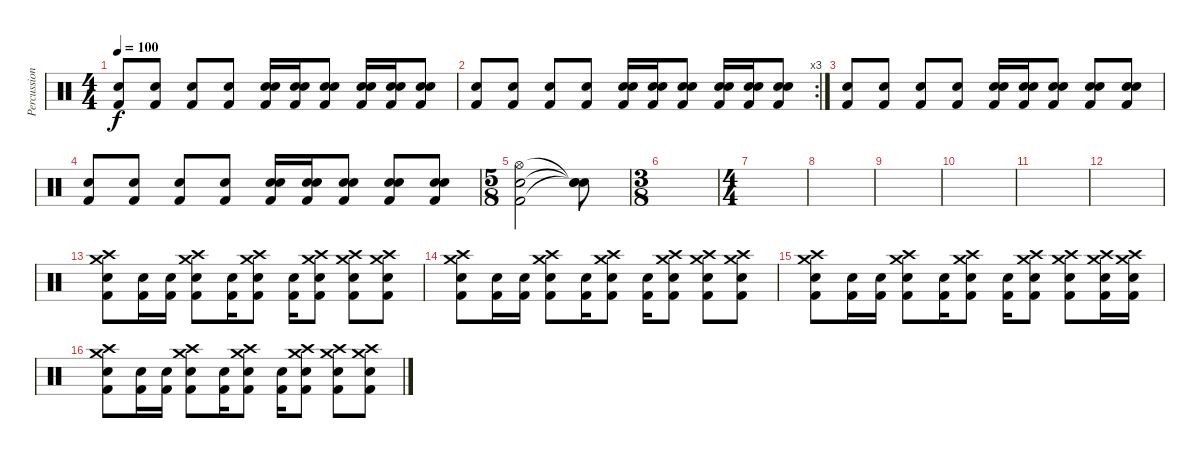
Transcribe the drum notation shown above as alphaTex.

\track ("Percussion" "Percussion") {instrument percussion}
\staff {score}
\articulation defaults
\ts (4 4)
\tempo 100
\clef neutral
\ks c
("Kick (hit) 2" "Snare (hit) 2").8{dy f} ("Kick (hit) 2" "Snare (hit) 2").8 ("Kick (hit) 2" "Snare (hit) 2").8 ("Kick (hit) 2" "Snare (hit) 2").8 ("Snare (hit) 2" "Electric Snare (hit)" "Kick (hit) 2").16 ("Snare (hit) 2" "Electric Snare (hit)" "Kick (hit) 2").16 ("Snare (hit) 2" "Electric Snare (hit)" "Kick (hit) 2").8 ("Snare (hit) 2" "Electric Snare (hit)" "Kick (hit) 2").16 ("Snare (hit) 2" "Electric Snare (hit)" "Kick (hit) 2").16 ("Snare (hit) 2" "Electric Snare (hit)" "Kick (hit) 2").8 |
\rc 3
("Kick (hit) 2" "Snare (hit) 2").8 ("Kick (hit) 2" "Snare (hit) 2").8 ("Kick (hit) 2" "Snare (hit) 2").8 ("Kick (hit) 2" "Snare (hit) 2").8 ("Snare (hit) 2" "Electric Snare (hit)" "Kick (hit) 2").16 ("Snare (hit) 2" "Electric Snare (hit)" "Kick (hit) 2").16 ("Snare (hit) 2" "Electric Snare (hit)" "Kick (hit) 2").8 ("Snare (hit) 2" "Electric Snare (hit)" "Kick (hit) 2").16 ("Snare (hit) 2" "Electric Snare (hit)" "Kick (hit) 2").16 ("Snare (hit) 2" "Electric Snare (hit)" "Kick (hit) 2").8 |
("Kick (hit) 2" "Snare (hit) 2").8 ("Kick (hit) 2" "Snare (hit) 2").8 ("Kick (hit) 2" "Snare (hit) 2").8 ("Kick (hit) 2" "Snare (hit) 2").8 ("Snare (hit) 2" "Electric Snare (hit)" "Kick (hit) 2").16 ("Snare (hit) 2" "Electric Snare (hit)" "Kick (hit) 2").16 ("Snare (hit) 2" "Electric Snare (hit)" "Kick (hit) 2").8 ("Snare (hit) 2" "Electric Snare (hit)" "Kick (hit) 2").8 ("Snare (hit) 2" "Electric Snare (hit)" "Kick (hit) 2").8 |
("Kick (hit) 2" "Snare (hit) 2").8 ("Kick (hit) 2" "Snare (hit) 2").8 ("Kick (hit) 2" "Snare (hit) 2").8 ("Kick (hit) 2" "Snare (hit) 2").8 ("Snare (hit) 2" "Electric Snare (hit)" "Kick (hit) 2").16 ("Snare (hit) 2" "Electric Snare (hit)" "Kick (hit) 2").16 ("Snare (hit) 2" "Electric Snare (hit)" "Kick (hit) 2").8 ("Snare (hit) 2" "Electric Snare (hit)" "Kick (hit) 2").8 ("Snare (hit) 2" "Electric Snare (hit)" "Kick (hit) 2").8 |
\ts (5 8)
("Snare (hit) 2" "Hi-Hat (open)" "Kick (hit) 2").2 ("Snare (hit)"{t} "Snare (hit)"{t} "Snare (hit)"{t}).8 |
\ts (3 8)
|
\ts (4 4)
|
|
|
|
|
|
("Crash high (hit)" "Kick (hit) 2" "Electric Snare (hit)" "Crash medium (hit)").8 ("Kick (hit) 2" "Electric Snare (hit)").16 ("Kick (hit) 2" "Electric Snare (hit)").16 ("Crash high (hit)" "Kick (hit) 2" "Electric Snare (hit)" "Crash medium (hit)").8 ("Kick (hit) 2" "Electric Snare (hit)").16 ("Crash high (hit)" "Kick (hit) 2" "Electric Snare (hit)" "Crash medium (hit)").8 ("Kick (hit) 2" "Electric Snare (hit)").16 ("Crash high (hit)" "Kick (hit) 2" "Electric Snare (hit)" "Crash medium (hit)").8 ("Crash high (hit)" "Kick (hit) 2" "Electric Snare (hit)" "Crash medium (hit)").8 ("Crash high (hit)" "Kick (hit) 2" "Electric Snare (hit)" "Crash medium (hit)").8 |
("Crash high (hit)" "Kick (hit) 2" "Electric Snare (hit)" "Crash medium (hit)").8 ("Kick (hit) 2" "Electric Snare (hit)").16 ("Kick (hit) 2" "Electric Snare (hit)").16 ("Crash high (hit)" "Kick (hit) 2" "Electric Snare (hit)" "Crash medium (hit)").8 ("Kick (hit) 2" "Electric Snare (hit)").16 ("Crash high (hit)" "Kick (hit) 2" "Electric Snare (hit)" "Crash medium (hit)").8 ("Kick (hit) 2" "Electric Snare (hit)").16 ("Crash high (hit)" "Kick (hit) 2" "Electric Snare (hit)" "Crash medium (hit)").8 ("Crash high (hit)" "Kick (hit) 2" "Electric Snare (hit)" "Crash medium (hit)").8 ("Crash high (hit)" "Kick (hit) 2" "Electric Snare (hit)" "Crash medium (hit)").8 |
("Crash high (hit)" "Kick (hit) 2" "Electric Snare (hit)" "Crash medium (hit)").8 ("Kick (hit) 2" "Electric Snare (hit)").16 ("Kick (hit) 2" "Electric Snare (hit)").16 ("Crash high (hit)" "Kick (hit) 2" "Electric Snare (hit)" "Crash medium (hit)").8 ("Kick (hit) 2" "Electric Snare (hit)").16 ("Crash high (hit)" "Kick (hit) 2" "Electric Snare (hit)" "Crash medium (hit)").8 ("Kick (hit) 2" "Electric Snare (hit)").16 ("Crash high (hit)" "Kick (hit) 2" "Electric Snare (hit)" "Crash medium (hit)").8 ("Crash high (hit)" "Kick (hit) 2" "Electric Snare (hit)" "Crash medium (hit)").8 ("Crash high (hit)" "Kick (hit) 2" "Electric Snare (hit)" "Crash medium (hit)").16 ("Crash high (hit)" "Kick (hit) 2" "Electric Snare (hit)" "Crash medium (hit)").16 |
("Crash high (hit)" "Kick (hit) 2" "Electric Snare (hit)" "Crash medium (hit)").8 ("Kick (hit) 2" "Electric Snare (hit)").16 ("Kick (hit) 2" "Electric Snare (hit)").16 ("Crash high (hit)" "Kick (hit) 2" "Electric Snare (hit)" "Crash medium (hit)").8 ("Kick (hit) 2" "Electric Snare (hit)").16 ("Crash high (hit)" "Kick (hit) 2" "Electric Snare (hit)" "Crash medium (hit)").8 ("Kick (hit) 2" "Electric Snare (hit)").16 ("Crash high (hit)" "Kick (hit) 2" "Electric Snare (hit)" "Crash medium (hit)").8 ("Crash high (hit)" "Kick (hit) 2" "Electric Snare (hit)" "Crash medium (hit)").8 ("Crash high (hit)" "Kick (hit) 2" "Electric Snare (hit)" "Crash medium (hit)").8
